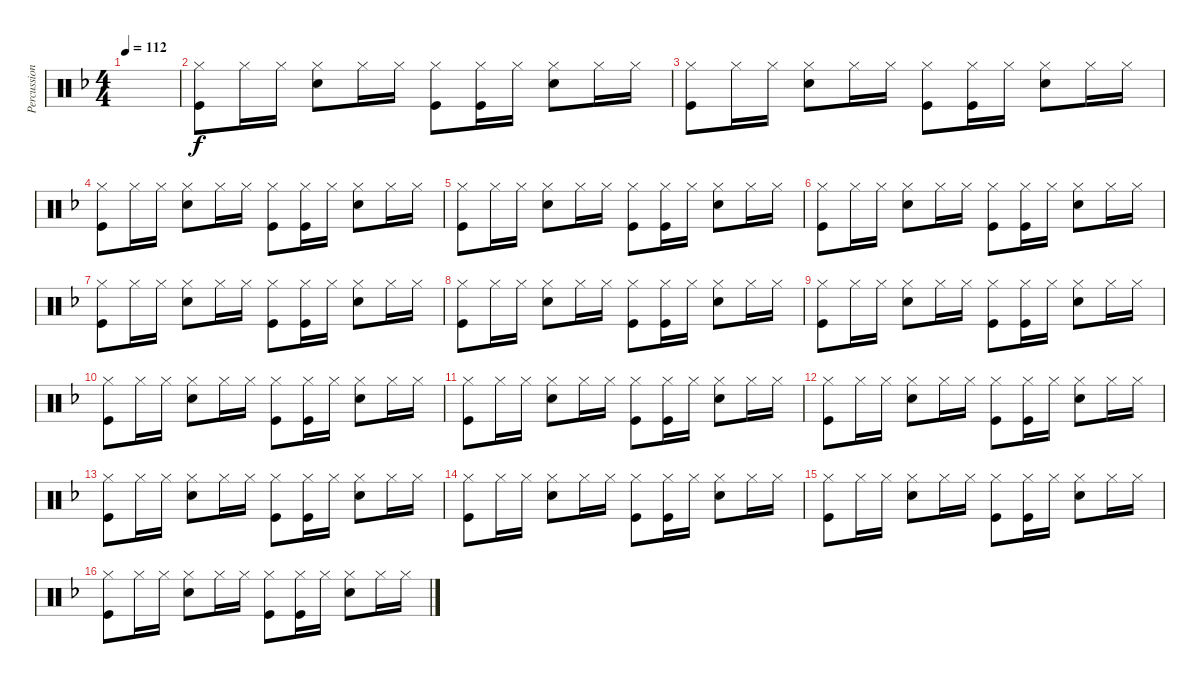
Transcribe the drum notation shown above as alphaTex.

\track ("Percussion" "Percussion") {instrument percussion}
\staff {score}
\articulation defaults
\ts (4 4)
\tempo 112
\clef neutral
\ks f
|
("Hi-Hat (closed)" "Kick (hit)").8 "Hi-Hat (closed)".16 "Hi-Hat (closed)".16 ("Hi-Hat (closed)" "Snare (hit) 2").8 "Hi-Hat (closed)".16 "Hi-Hat (closed)".16 ("Hi-Hat (closed)" "Kick (hit)").8 ("Hi-Hat (closed)" "Kick (hit)").16 "Hi-Hat (closed)".16 ("Hi-Hat (closed)" "Snare (hit) 2").8 "Hi-Hat (closed)".16 "Hi-Hat (closed)".16 |
("Hi-Hat (closed)" "Kick (hit)").8 "Hi-Hat (closed)".16 "Hi-Hat (closed)".16 ("Hi-Hat (closed)" "Snare (hit) 2").8 "Hi-Hat (closed)".16 "Hi-Hat (closed)".16 ("Hi-Hat (closed)" "Kick (hit)").8 ("Hi-Hat (closed)" "Kick (hit)").16 "Hi-Hat (closed)".16 ("Hi-Hat (closed)" "Snare (hit) 2").8 "Hi-Hat (closed)".16 "Hi-Hat (closed)".16 |
("Hi-Hat (closed)" "Kick (hit)").8 "Hi-Hat (closed)".16 "Hi-Hat (closed)".16 ("Hi-Hat (closed)" "Snare (hit) 2").8 "Hi-Hat (closed)".16 "Hi-Hat (closed)".16 ("Hi-Hat (closed)" "Kick (hit)").8 ("Hi-Hat (closed)" "Kick (hit)").16 "Hi-Hat (closed)".16 ("Hi-Hat (closed)" "Snare (hit) 2").8 "Hi-Hat (closed)".16 "Hi-Hat (closed)".16 |
("Hi-Hat (closed)" "Kick (hit)").8 "Hi-Hat (closed)".16 "Hi-Hat (closed)".16 ("Hi-Hat (closed)" "Snare (hit) 2").8 "Hi-Hat (closed)".16 "Hi-Hat (closed)".16 ("Hi-Hat (closed)" "Kick (hit)").8 ("Hi-Hat (closed)" "Kick (hit)").16 "Hi-Hat (closed)".16 ("Hi-Hat (closed)" "Snare (hit) 2").8 "Hi-Hat (closed)".16 "Hi-Hat (closed)".16 |
("Hi-Hat (closed)" "Kick (hit)").8 "Hi-Hat (closed)".16 "Hi-Hat (closed)".16 ("Hi-Hat (closed)" "Snare (hit) 2").8 "Hi-Hat (closed)".16 "Hi-Hat (closed)".16 ("Hi-Hat (closed)" "Kick (hit)").8 ("Hi-Hat (closed)" "Kick (hit)").16 "Hi-Hat (closed)".16 ("Hi-Hat (closed)" "Snare (hit) 2").8 "Hi-Hat (closed)".16 "Hi-Hat (closed)".16 |
("Hi-Hat (closed)" "Kick (hit)").8 "Hi-Hat (closed)".16 "Hi-Hat (closed)".16 ("Hi-Hat (closed)" "Snare (hit) 2").8 "Hi-Hat (closed)".16 "Hi-Hat (closed)".16 ("Hi-Hat (closed)" "Kick (hit)").8 ("Hi-Hat (closed)" "Kick (hit)").16 "Hi-Hat (closed)".16 ("Hi-Hat (closed)" "Snare (hit) 2").8 "Hi-Hat (closed)".16 "Hi-Hat (closed)".16 |
("Hi-Hat (closed)" "Kick (hit)").8 "Hi-Hat (closed)".16 "Hi-Hat (closed)".16 ("Hi-Hat (closed)" "Snare (hit) 2").8 "Hi-Hat (closed)".16 "Hi-Hat (closed)".16 ("Hi-Hat (closed)" "Kick (hit)").8 ("Hi-Hat (closed)" "Kick (hit)").16 "Hi-Hat (closed)".16 ("Hi-Hat (closed)" "Snare (hit) 2").8 "Hi-Hat (closed)".16 "Hi-Hat (closed)".16 |
("Hi-Hat (closed)" "Kick (hit)").8 "Hi-Hat (closed)".16 "Hi-Hat (closed)".16 ("Hi-Hat (closed)" "Snare (hit) 2").8 "Hi-Hat (closed)".16 "Hi-Hat (closed)".16 ("Hi-Hat (closed)" "Kick (hit)").8 ("Hi-Hat (closed)" "Kick (hit)").16 "Hi-Hat (closed)".16 ("Hi-Hat (closed)" "Snare (hit) 2").8 "Hi-Hat (closed)".16 "Hi-Hat (closed)".16 |
("Hi-Hat (closed)" "Kick (hit)").8 "Hi-Hat (closed)".16 "Hi-Hat (closed)".16 ("Hi-Hat (closed)" "Snare (hit) 2").8 "Hi-Hat (closed)".16 "Hi-Hat (closed)".16 ("Hi-Hat (closed)" "Kick (hit)").8 ("Hi-Hat (closed)" "Kick (hit)").16 "Hi-Hat (closed)".16 ("Hi-Hat (closed)" "Snare (hit) 2").8 "Hi-Hat (closed)".16 "Hi-Hat (closed)".16 |
("Hi-Hat (closed)" "Kick (hit)").8 "Hi-Hat (closed)".16 "Hi-Hat (closed)".16 ("Hi-Hat (closed)" "Snare (hit) 2").8 "Hi-Hat (closed)".16 "Hi-Hat (closed)".16 ("Hi-Hat (closed)" "Kick (hit)").8 ("Hi-Hat (closed)" "Kick (hit)").16 "Hi-Hat (closed)".16 ("Hi-Hat (closed)" "Snare (hit) 2").8 "Hi-Hat (closed)".16 "Hi-Hat (closed)".16 |
("Hi-Hat (closed)" "Kick (hit)").8 "Hi-Hat (closed)".16 "Hi-Hat (closed)".16 ("Hi-Hat (closed)" "Snare (hit) 2").8 "Hi-Hat (closed)".16 "Hi-Hat (closed)".16 ("Hi-Hat (closed)" "Kick (hit)").8 ("Hi-Hat (closed)" "Kick (hit)").16 "Hi-Hat (closed)".16 ("Hi-Hat (closed)" "Snare (hit) 2").8 "Hi-Hat (closed)".16 "Hi-Hat (closed)".16 |
("Hi-Hat (closed)" "Kick (hit)").8 "Hi-Hat (closed)".16 "Hi-Hat (closed)".16 ("Hi-Hat (closed)" "Snare (hit) 2").8 "Hi-Hat (closed)".16 "Hi-Hat (closed)".16 ("Hi-Hat (closed)" "Kick (hit)").8 ("Hi-Hat (closed)" "Kick (hit)").16 "Hi-Hat (closed)".16 ("Hi-Hat (closed)" "Snare (hit) 2").8 "Hi-Hat (closed)".16 "Hi-Hat (closed)".16 |
("Hi-Hat (closed)" "Kick (hit)").8 "Hi-Hat (closed)".16 "Hi-Hat (closed)".16 ("Hi-Hat (closed)" "Snare (hit) 2").8 "Hi-Hat (closed)".16 "Hi-Hat (closed)".16 ("Hi-Hat (closed)" "Kick (hit)").8 ("Hi-Hat (closed)" "Kick (hit)").16 "Hi-Hat (closed)".16 ("Hi-Hat (closed)" "Snare (hit) 2").8 "Hi-Hat (closed)".16 "Hi-Hat (closed)".16 |
("Hi-Hat (closed)" "Kick (hit)").8 "Hi-Hat (closed)".16 "Hi-Hat (closed)".16 ("Hi-Hat (closed)" "Snare (hit) 2").8 "Hi-Hat (closed)".16 "Hi-Hat (closed)".16 ("Hi-Hat (closed)" "Kick (hit)").8 ("Hi-Hat (closed)" "Kick (hit)").16 "Hi-Hat (closed)".16 ("Hi-Hat (closed)" "Snare (hit) 2").8 "Hi-Hat (closed)".16 "Hi-Hat (closed)".16 |
("Hi-Hat (closed)" "Kick (hit)").8 "Hi-Hat (closed)".16 "Hi-Hat (closed)".16 ("Hi-Hat (closed)" "Snare (hit) 2").8 "Hi-Hat (closed)".16 "Hi-Hat (closed)".16 ("Hi-Hat (closed)" "Kick (hit)").8 ("Hi-Hat (closed)" "Kick (hit)").16 "Hi-Hat (closed)".16 ("Hi-Hat (closed)" "Snare (hit) 2").8 "Hi-Hat (closed)".16 "Hi-Hat (closed)".16
